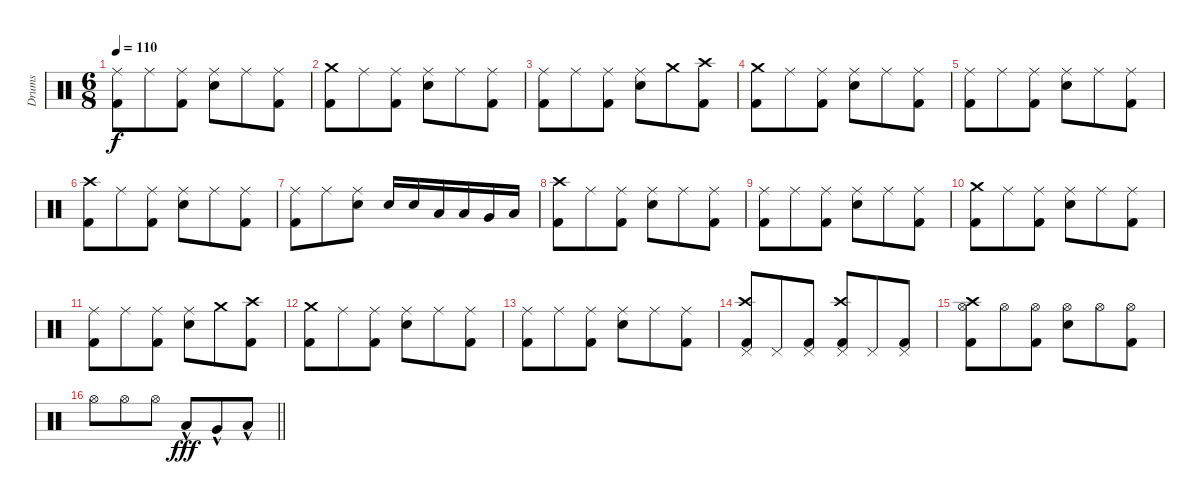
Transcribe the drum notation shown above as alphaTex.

\track ("Drums" "Drums") {instrument percussion}
\staff {score}
\articulation defaults
\ts (6 8)
\tempo 110
\clef neutral
\ks c
("Ride (middle)" "Kick (hit) 2").8{dy f} "Ride (middle)".8 ("Ride (middle)" "Kick (hit) 2").8 ("Ride (middle)" "Snare (hit) 2").8 "Ride (middle)".8 ("Ride (middle)" "Kick (hit) 2").8 |
("Crash medium (hit)" "Kick (hit) 2").8 "Ride (middle)".8 ("Ride (middle)" "Kick (hit) 2").8 ("Ride (middle)" "Snare (hit) 2").8 "Ride (middle)".8 ("Ride (middle)" "Kick (hit) 2").8 |
("Ride (middle)" "Kick (hit) 2").8 "Ride (middle)".8 ("Ride (middle)" "Kick (hit) 2").8 ("Ride (middle)" "Snare (hit) 2").8 "Crash medium (hit)".8 ("Crash high (hit)" "Kick (hit) 2").8 |
("Crash medium (hit)" "Kick (hit) 2").8 "Ride (middle)".8 ("Ride (middle)" "Kick (hit) 2").8 ("Ride (middle)" "Snare (hit) 2").8 "Ride (middle)".8 ("Ride (middle)" "Kick (hit) 2").8 |
("Ride (middle)" "Kick (hit) 2").8 "Ride (middle)".8 ("Ride (middle)" "Kick (hit) 2").8 ("Ride (middle)" "Snare (hit) 2").8 "Ride (middle)".8 ("Ride (middle)" "Kick (hit) 2").8 |
("Crash high (hit)" "Kick (hit) 2").8 "Ride (middle)".8 ("Ride (middle)" "Kick (hit) 2").8 ("Ride (middle)" "Snare (hit) 2").8 "Ride (middle)".8 ("Ride (middle)" "Kick (hit) 2").8 |
("Ride (middle)" "Kick (hit) 2").8 "Ride (middle)".8 ("Ride (middle)" "Snare (hit) 2").8 "Snare (hit) 2".16 "Snare (hit) 2".16 "Low Tom (hit)".16 "Low Tom (hit)".16 "Very Low Tom (hit)".16 "Low Floor Tom (hit)".16 |
("Crash high (hit)" "Kick (hit) 2").8 "Ride (middle)".8 ("Ride (middle)" "Kick (hit) 2").8 ("Ride (middle)" "Snare (hit) 2").8 "Ride (middle)".8 ("Ride (middle)" "Kick (hit) 2").8 |
("Ride (middle)" "Kick (hit) 2").8 "Ride (middle)".8 ("Ride (middle)" "Kick (hit) 2").8 ("Ride (middle)" "Snare (hit) 2").8 "Ride (middle)".8 ("Ride (middle)" "Kick (hit) 2").8 |
("Crash medium (hit)" "Kick (hit) 2").8 "Ride (middle)".8 ("Ride (middle)" "Kick (hit) 2").8 ("Ride (middle)" "Snare (hit) 2").8 "Ride (middle)".8 ("Ride (middle)" "Kick (hit) 2").8 |
("Ride (middle)" "Kick (hit) 2").8 "Ride (middle)".8 ("Ride (middle)" "Kick (hit) 2").8 ("Ride (middle)" "Snare (hit) 2").8 "Crash medium (hit)".8 ("Crash high (hit)" "Kick (hit) 2").8 |
("Crash medium (hit)" "Kick (hit) 2").8 "Ride (middle)".8 ("Ride (middle)" "Kick (hit) 2").8 ("Ride (middle)" "Snare (hit) 2").8 "Ride (middle)".8 ("Ride (middle)" "Kick (hit) 2").8 |
("Ride (middle)" "Kick (hit) 2").8 "Ride (middle)".8 ("Ride (middle)" "Kick (hit) 2").8 ("Ride (middle)" "Snare (hit) 2").8 "Ride (middle)".8 ("Ride (middle)" "Kick (hit) 2").8 |
("Crash high (hit)" "Pedal Hi-Hat (hit)" "Kick (hit) 2").8 "Pedal Hi-Hat (hit)".8 ("Pedal Hi-Hat (hit)" "Kick (hit) 2").8 ("Crash high (hit)" "Pedal Hi-Hat (hit)" "Kick (hit) 2").8 "Pedal Hi-Hat (hit)".8 ("Pedal Hi-Hat (hit)" "Kick (hit) 2").8 |
("Crash high (hit)" "Hi-Hat (open)" "Kick (hit) 2").8 "Hi-Hat (open)".8 ("Hi-Hat (open)" "Kick (hit) 2").8 ("Hi-Hat (open)" "Snare (hit) 2").8 "Hi-Hat (open)".8 ("Hi-Hat (open)" "Kick (hit) 2").8 |
\barLineRight lightlight "Hi-Hat (open)".8 "Hi-Hat (open)".8 "Hi-Hat (open)".8 "Low Tom (hit)"{hac}.8{dy fff} "Very Low Tom (hit)"{hac}.8 "Low Floor Tom (hit)"{hac}.8
